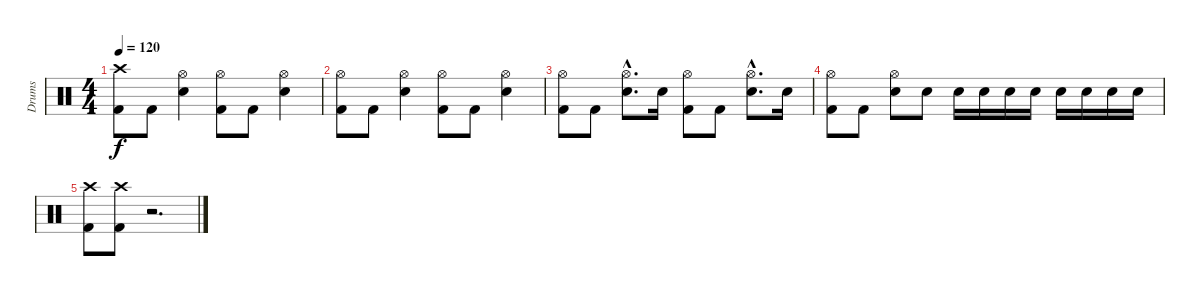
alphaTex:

\track ("Drums" "Drums") {instrument percussion}
\staff {score}
\articulation defaults
\ts (4 4)
\tempo 120
\clef neutral
\ks c
("Crash high (hit)" "Kick (hit) 2").8{dy f} "Kick (hit) 2".8 ("Hi-Hat (open)" "Electric Snare (hit)").4 ("Hi-Hat (open)" "Kick (hit) 2").8 "Kick (hit) 2".8 ("Hi-Hat (open)" "Electric Snare (hit)").4 |
("Hi-Hat (open)" "Kick (hit) 2").8 "Kick (hit) 2".8 ("Hi-Hat (open)" "Electric Snare (hit)").4 ("Hi-Hat (open)" "Kick (hit) 2").8 "Kick (hit) 2".8 ("Hi-Hat (open)" "Electric Snare (hit)").4 |
("Hi-Hat (open)" "Kick (hit) 2").8 "Kick (hit) 2".8 ("Hi-Hat (open)"{hac} "Electric Snare (hit)"{hac}).8{d} "Electric Snare (hit)".16 ("Hi-Hat (open)" "Kick (hit) 2").8 "Kick (hit) 2".8 ("Hi-Hat (open)"{hac} "Electric Snare (hit)"{hac}).8{d} "Electric Snare (hit)".16 |
("Hi-Hat (open)" "Kick (hit) 2").8 "Kick (hit) 2".8 ("Hi-Hat (open)" "Electric Snare (hit)").8 "Electric Snare (hit)".8 "Electric Snare (hit)".16 "Electric Snare (hit)".16 "Electric Snare (hit)".16 "Electric Snare (hit)".16 "Electric Snare (hit)".16 "Electric Snare (hit)".16 "Electric Snare (hit)".16 "Electric Snare (hit)".16 |
("Crash high (hit)" "Kick (hit) 2").8 ("Crash high (hit)" "Kick (hit) 2").8 r.2{d volume 0}
